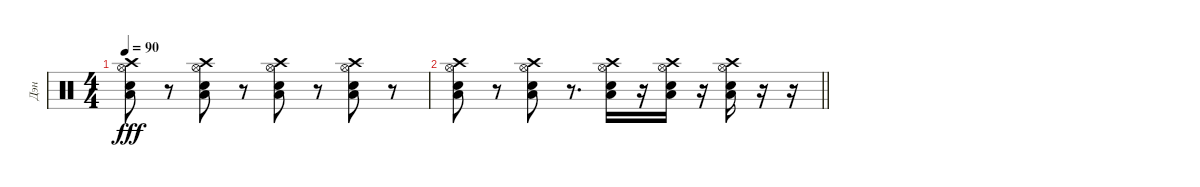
\track ("Дэн" "Дэн") {instrument percussion}
\staff {score}
\articulation defaults
\ts (4 4)
\tempo 90
\clef neutral
\ks c
("Low Floor Tom (hit)" "Electric Snare (hit)" "Hi-Hat (open)" "Crash high (hit)").8{dy fff} r.8 ("Low Floor Tom (hit)" "Electric Snare (hit)" "Hi-Hat (open)" "Crash high (hit)").8 r.8 ("Low Floor Tom (hit)" "Electric Snare (hit)" "Hi-Hat (open)" "Crash high (hit)").8 r.8 ("Low Floor Tom (hit)" "Electric Snare (hit)" "Hi-Hat (open)" "Crash high (hit)").8 r.8 |
\barLineRight lightlight
("Low Floor Tom (hit)" "Electric Snare (hit)" "Hi-Hat (open)" "Crash high (hit)").8 r.8 ("Low Floor Tom (hit)" "Electric Snare (hit)" "Hi-Hat (open)" "Crash high (hit)").8 r.8{d} ("Low Floor Tom (hit)" "Electric Snare (hit)" "Hi-Hat (open)" "Crash high (hit)").16 r.16 ("Low Floor Tom (hit)" "Electric Snare (hit)" "Hi-Hat (open)" "Crash high (hit)").16 r.16 ("Low Floor Tom (hit)" "Electric Snare (hit)" "Hi-Hat (open)" "Crash high (hit)").16 r.16 r.16
